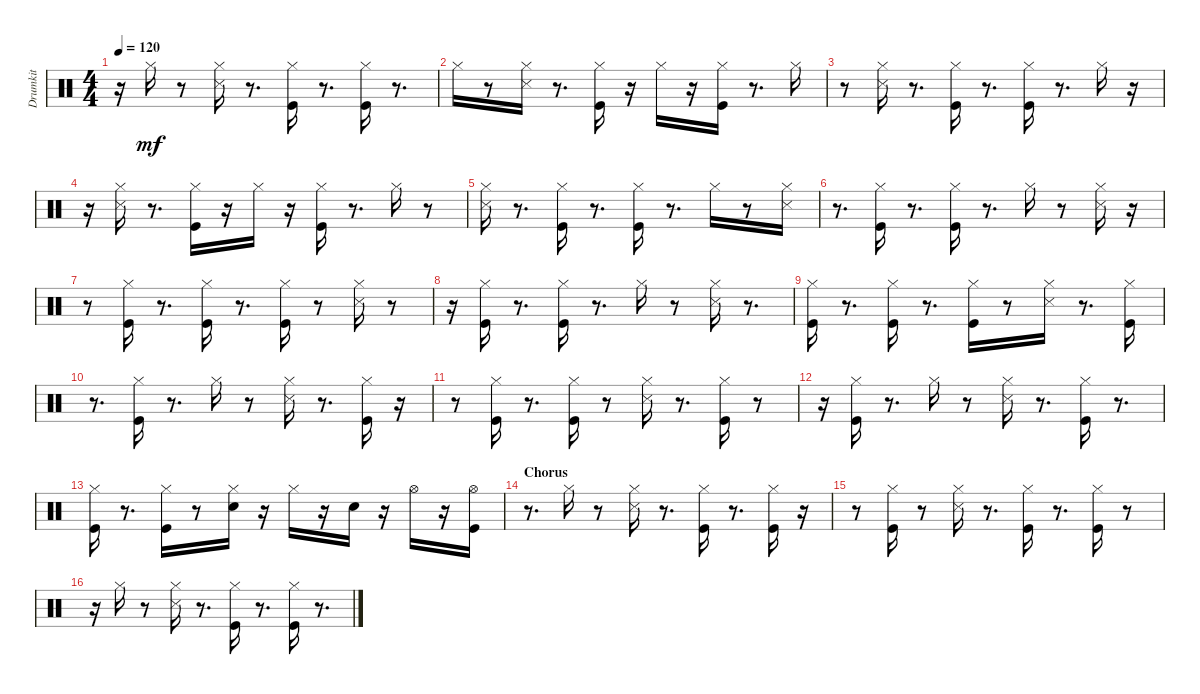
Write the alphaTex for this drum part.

\track ("Drumkit" "Drumkit") {instrument percussion}
\staff {score}
\articulation defaults
\ts (4 4)
\tempo 120
\clef neutral
\ks aminor
r.16{dy mf} "Hi-Hat (closed)".16 r.8 ("Snare (side stick) 3" "Hi-Hat (closed)").16 r.8{d} ("Kick (hit)" "Hi-Hat (closed)").16 r.8{d} ("Kick (hit)" "Hi-Hat (closed)").16 r.8{d} |
"Hi-Hat (closed)".16 r.8 ("Snare (side stick) 3" "Hi-Hat (closed)").16 r.8{d} ("Kick (hit)" "Hi-Hat (closed)").16 r.16 "Hi-Hat (closed)".16 r.16 ("Kick (hit)" "Hi-Hat (closed)").16 r.8{d} "Hi-Hat (closed)".16 |
r.8 ("Snare (side stick) 3" "Hi-Hat (closed)").16 r.8{d} ("Kick (hit)" "Hi-Hat (closed)").16 r.8{d} ("Kick (hit)" "Hi-Hat (closed)").16 r.8{d} "Hi-Hat (closed)".16 r.16 |
r.16 ("Snare (side stick) 3" "Hi-Hat (closed)").16 r.8{d} ("Kick (hit)" "Hi-Hat (closed)").16 r.16 "Hi-Hat (closed)".16 r.16 ("Kick (hit)" "Hi-Hat (closed)").16 r.8{d} "Hi-Hat (closed)".16 r.8 |
("Snare (side stick) 3" "Hi-Hat (closed)").16 r.8{d} ("Kick (hit)" "Hi-Hat (closed)").16 r.8{d} ("Kick (hit)" "Hi-Hat (closed)").16 r.8{d} "Hi-Hat (closed)".16 r.8 ("Snare (side stick) 3" "Hi-Hat (closed)").16 |
r.8{d} ("Kick (hit)" "Hi-Hat (closed)").16 r.8{d} ("Kick (hit)" "Hi-Hat (closed)").16 r.8{d} "Hi-Hat (closed)".16 r.8 ("Snare (side stick) 3" "Hi-Hat (closed)").16 r.16 |
r.8 ("Kick (hit)" "Hi-Hat (closed)").16 r.8{d} ("Kick (hit)" "Hi-Hat (closed)").16 r.8{d} ("Kick (hit)" "Hi-Hat (closed)").16 r.8 ("Snare (side stick) 3" "Hi-Hat (closed)").16 r.8 |
r.16 ("Kick (hit)" "Hi-Hat (closed)").16 r.8{d} ("Kick (hit)" "Hi-Hat (closed)").16 r.8{d} "Hi-Hat (closed)".16 r.8 ("Snare (side stick) 3" "Hi-Hat (closed)").16 r.8{d} |
("Kick (hit)" "Hi-Hat (closed)").16 r.8{d} ("Kick (hit)" "Hi-Hat (closed)").16 r.8{d} ("Kick (hit)" "Hi-Hat (closed)").16 r.8 ("Snare (side stick) 3" "Hi-Hat (closed)").16 r.8{d} ("Kick (hit)" "Hi-Hat (closed)").16 |
r.8{d} ("Kick (hit)" "Hi-Hat (closed)").16 r.8{d} "Hi-Hat (closed)".16 r.8 ("Snare (side stick) 3" "Hi-Hat (closed)").16 r.8{d} ("Kick (hit)" "Hi-Hat (closed)").16 r.16 |
r.8 ("Kick (hit)" "Hi-Hat (closed)").16 r.8{d} ("Kick (hit)" "Hi-Hat (closed)").16 r.8 ("Snare (side stick) 3" "Hi-Hat (closed)").16 r.8{d} ("Kick (hit)" "Hi-Hat (closed)").16 r.8 |
r.16 ("Kick (hit)" "Hi-Hat (closed)").16 r.8{d} "Hi-Hat (closed)".16 r.8 ("Snare (side stick) 3" "Hi-Hat (closed)").16 r.8{d} ("Kick (hit)" "Hi-Hat (closed)").16 r.8{d} |
("Kick (hit)" "Hi-Hat (closed)").16 r.8{d} ("Kick (hit)" "Hi-Hat (closed)").16 r.8 ("Snare (hit) 2" "Hi-Hat (closed)").16 r.16 "Hi-Hat (closed)".16 r.16 "Snare (hit) 2".16 r.16 "Hi-Hat (open)".16 r.16 ("Kick (hit)" "Hi-Hat (open)").16 |
\section ("" "Chorus")
r.8{d} "Hi-Hat (closed)".16 r.8 ("Snare (side stick) 3" "Hi-Hat (closed)").16 r.8{d} ("Kick (hit)" "Hi-Hat (closed)").16 r.8{d} ("Kick (hit)" "Hi-Hat (closed)").16 r.16 |
r.8 ("Kick (hit)" "Hi-Hat (closed)").16 r.8 ("Snare (side stick) 3" "Hi-Hat (closed)").16 r.8{d} ("Kick (hit)" "Hi-Hat (closed)").16 r.8{d} ("Kick (hit)" "Hi-Hat (closed)").16 r.8 |
r.16 "Hi-Hat (closed)".16 r.8 ("Snare (side stick) 3" "Hi-Hat (closed)").16 r.8{d} ("Kick (hit)" "Hi-Hat (closed)").16 r.8{d} ("Kick (hit)" "Hi-Hat (closed)").16 r.8{d}
